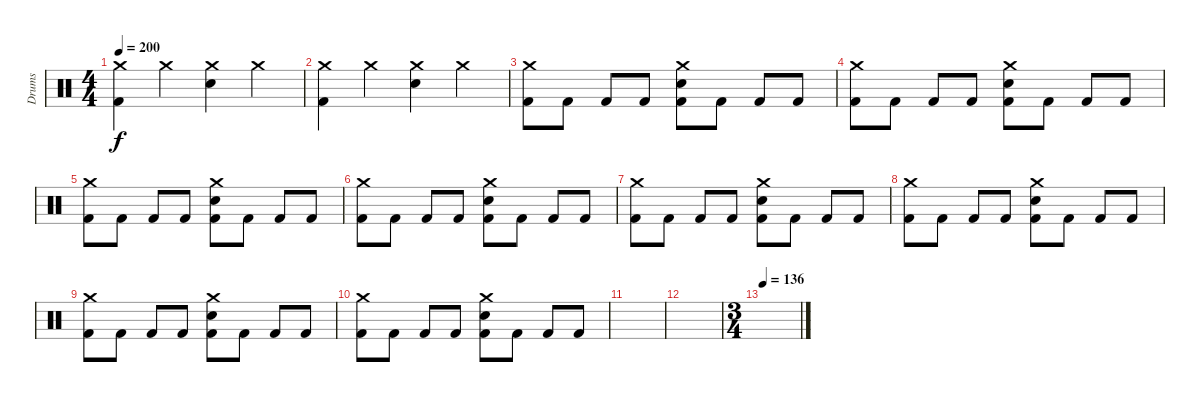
\track ("Drums" "Drums") {instrument percussion}
\staff {score}
\articulation defaults
\ts (4 4)
\tempo 200
\clef neutral
\ks c
("Crash medium (hit)" "Kick (hit) 2").4{dy f} "Crash medium (hit)".4 ("Crash medium (hit)" "Snare (hit) 2").4 "Crash medium (hit)".4 |
("Crash medium (hit)" "Kick (hit) 2").4 "Crash medium (hit)".4 ("Crash medium (hit)" "Snare (hit) 2").4 "Crash medium (hit)".4 |
("Crash medium (hit)" "Kick (hit) 2").8 "Kick (hit) 2".8 "Kick (hit) 2".8 "Kick (hit) 2".8 ("Crash medium (hit)" "Snare (hit) 2" "Kick (hit) 2").8 "Kick (hit) 2".8 "Kick (hit) 2".8 "Kick (hit) 2".8 |
("Crash medium (hit)" "Kick (hit) 2").8 "Kick (hit) 2".8 "Kick (hit) 2".8 "Kick (hit) 2".8 ("Crash medium (hit)" "Snare (hit) 2" "Kick (hit) 2").8 "Kick (hit) 2".8 "Kick (hit) 2".8 "Kick (hit) 2".8 |
("Crash medium (hit)" "Kick (hit) 2").8 "Kick (hit) 2".8 "Kick (hit) 2".8 "Kick (hit) 2".8 ("Crash medium (hit)" "Snare (hit) 2" "Kick (hit) 2").8 "Kick (hit) 2".8 "Kick (hit) 2".8 "Kick (hit) 2".8 |
("Crash medium (hit)" "Kick (hit) 2").8 "Kick (hit) 2".8 "Kick (hit) 2".8 "Kick (hit) 2".8 ("Crash medium (hit)" "Snare (hit) 2" "Kick (hit) 2").8 "Kick (hit) 2".8 "Kick (hit) 2".8 "Kick (hit) 2".8 |
("Crash medium (hit)" "Kick (hit) 2").8 "Kick (hit) 2".8 "Kick (hit) 2".8 "Kick (hit) 2".8 ("Crash medium (hit)" "Snare (hit) 2" "Kick (hit) 2").8 "Kick (hit) 2".8 "Kick (hit) 2".8 "Kick (hit) 2".8 |
("Crash medium (hit)" "Kick (hit) 2").8 "Kick (hit) 2".8 "Kick (hit) 2".8 "Kick (hit) 2".8 ("Crash medium (hit)" "Snare (hit) 2" "Kick (hit) 2").8 "Kick (hit) 2".8 "Kick (hit) 2".8 "Kick (hit) 2".8 |
("Crash medium (hit)" "Kick (hit) 2").8 "Kick (hit) 2".8 "Kick (hit) 2".8 "Kick (hit) 2".8 ("Crash medium (hit)" "Snare (hit) 2" "Kick (hit) 2").8 "Kick (hit) 2".8 "Kick (hit) 2".8 "Kick (hit) 2".8 |
("Crash medium (hit)" "Kick (hit) 2").8 "Kick (hit) 2".8 "Kick (hit) 2".8 "Kick (hit) 2".8 ("Crash medium (hit)" "Snare (hit) 2" "Kick (hit) 2").8 "Kick (hit) 2".8 "Kick (hit) 2".8 "Kick (hit) 2".8 |
|
|
\ts (3 4)
\tempo 136
